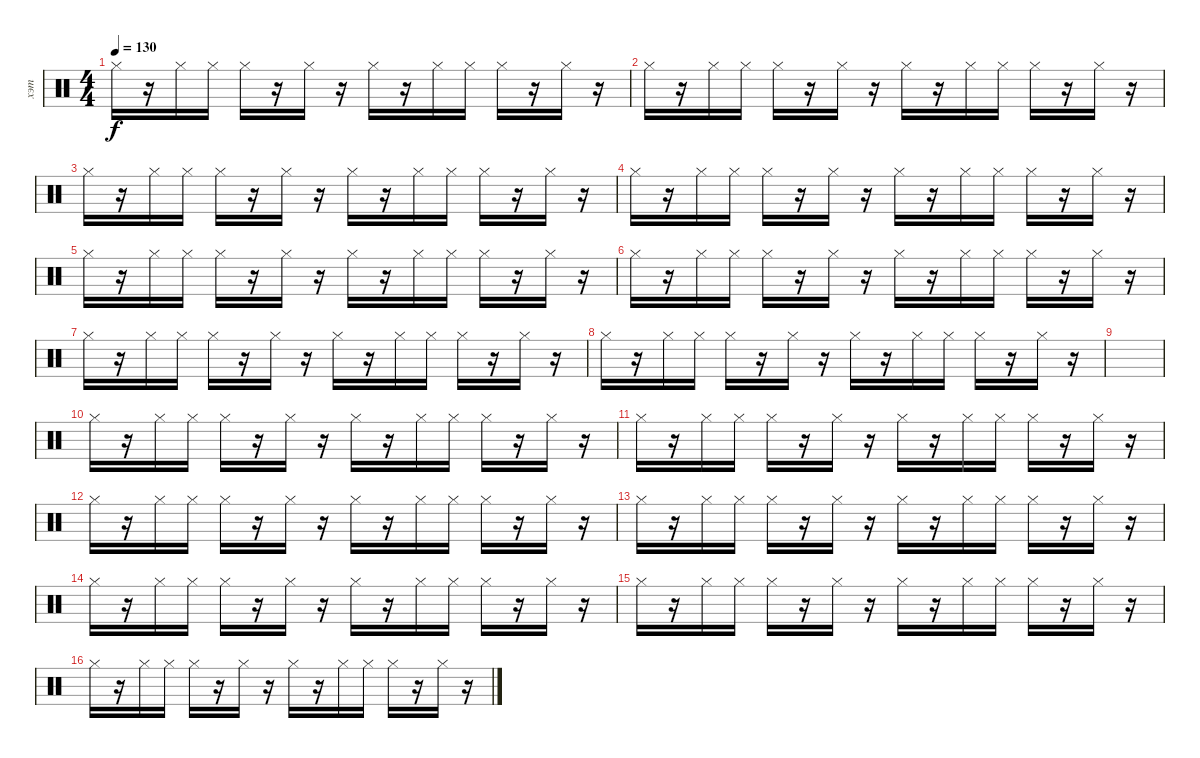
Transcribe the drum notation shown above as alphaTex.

\track ("хэт" "хэт") {instrument percussion}
\staff {score}
\articulation defaults
\ts (4 4)
\tempo 130
\clef neutral
\ks c "Hi-Hat (closed)".16{dy f}
r.16 "Hi-Hat (closed)".16 "Hi-Hat (closed)".16 "Hi-Hat (closed)".16 r.16 "Hi-Hat (closed)".16 r.16 "Hi-Hat (closed)".16 r.16 "Hi-Hat (closed)".16 "Hi-Hat (closed)".16 "Hi-Hat (closed)".16 r.16 "Hi-Hat (closed)".16 r.16 |
"Hi-Hat (closed)".16 r.16 "Hi-Hat (closed)".16 "Hi-Hat (closed)".16 "Hi-Hat (closed)".16 r.16 "Hi-Hat (closed)".16 r.16 "Hi-Hat (closed)".16 r.16 "Hi-Hat (closed)".16 "Hi-Hat (closed)".16 "Hi-Hat (closed)".16 r.16 "Hi-Hat (closed)".16 r.16 |
"Hi-Hat (closed)".16 r.16 "Hi-Hat (closed)".16 "Hi-Hat (closed)".16 "Hi-Hat (closed)".16 r.16 "Hi-Hat (closed)".16 r.16 "Hi-Hat (closed)".16 r.16 "Hi-Hat (closed)".16 "Hi-Hat (closed)".16 "Hi-Hat (closed)".16 r.16 "Hi-Hat (closed)".16 r.16 |
"Hi-Hat (closed)".16 r.16 "Hi-Hat (closed)".16 "Hi-Hat (closed)".16 "Hi-Hat (closed)".16 r.16 "Hi-Hat (closed)".16 r.16 "Hi-Hat (closed)".16 r.16 "Hi-Hat (closed)".16 "Hi-Hat (closed)".16 "Hi-Hat (closed)".16 r.16 "Hi-Hat (closed)".16 r.16 |
"Hi-Hat (closed)".16 r.16 "Hi-Hat (closed)".16 "Hi-Hat (closed)".16 "Hi-Hat (closed)".16 r.16 "Hi-Hat (closed)".16 r.16 "Hi-Hat (closed)".16 r.16 "Hi-Hat (closed)".16 "Hi-Hat (closed)".16 "Hi-Hat (closed)".16 r.16 "Hi-Hat (closed)".16 r.16 |
"Hi-Hat (closed)".16 r.16 "Hi-Hat (closed)".16 "Hi-Hat (closed)".16 "Hi-Hat (closed)".16 r.16 "Hi-Hat (closed)".16 r.16 "Hi-Hat (closed)".16 r.16 "Hi-Hat (closed)".16 "Hi-Hat (closed)".16 "Hi-Hat (closed)".16 r.16 "Hi-Hat (closed)".16 r.16 |
"Hi-Hat (closed)".16 r.16 "Hi-Hat (closed)".16 "Hi-Hat (closed)".16 "Hi-Hat (closed)".16 r.16 "Hi-Hat (closed)".16 r.16 "Hi-Hat (closed)".16 r.16 "Hi-Hat (closed)".16 "Hi-Hat (closed)".16 "Hi-Hat (closed)".16 r.16 "Hi-Hat (closed)".16 r.16 |
"Hi-Hat (closed)".16 r.16 "Hi-Hat (closed)".16 "Hi-Hat (closed)".16 "Hi-Hat (closed)".16 r.16 "Hi-Hat (closed)".16 r.16 "Hi-Hat (closed)".16 r.16 "Hi-Hat (closed)".16 "Hi-Hat (closed)".16 "Hi-Hat (closed)".16 r.16 "Hi-Hat (closed)".16 r.16 |
|
"Hi-Hat (closed)".16 r.16 "Hi-Hat (closed)".16 "Hi-Hat (closed)".16 "Hi-Hat (closed)".16 r.16 "Hi-Hat (closed)".16 r.16 "Hi-Hat (closed)".16 r.16 "Hi-Hat (closed)".16 "Hi-Hat (closed)".16 "Hi-Hat (closed)".16 r.16 "Hi-Hat (closed)".16 r.16 |
"Hi-Hat (closed)".16 r.16 "Hi-Hat (closed)".16 "Hi-Hat (closed)".16 "Hi-Hat (closed)".16 r.16 "Hi-Hat (closed)".16 r.16 "Hi-Hat (closed)".16 r.16 "Hi-Hat (closed)".16 "Hi-Hat (closed)".16 "Hi-Hat (closed)".16 r.16 "Hi-Hat (closed)".16 r.16 |
"Hi-Hat (closed)".16 r.16 "Hi-Hat (closed)".16 "Hi-Hat (closed)".16 "Hi-Hat (closed)".16 r.16 "Hi-Hat (closed)".16 r.16 "Hi-Hat (closed)".16 r.16 "Hi-Hat (closed)".16 "Hi-Hat (closed)".16 "Hi-Hat (closed)".16 r.16 "Hi-Hat (closed)".16 r.16 |
"Hi-Hat (closed)".16 r.16 "Hi-Hat (closed)".16 "Hi-Hat (closed)".16 "Hi-Hat (closed)".16 r.16 "Hi-Hat (closed)".16 r.16 "Hi-Hat (closed)".16 r.16 "Hi-Hat (closed)".16 "Hi-Hat (closed)".16 "Hi-Hat (closed)".16 r.16 "Hi-Hat (closed)".16 r.16 |
"Hi-Hat (closed)".16 r.16 "Hi-Hat (closed)".16 "Hi-Hat (closed)".16 "Hi-Hat (closed)".16 r.16 "Hi-Hat (closed)".16 r.16 "Hi-Hat (closed)".16 r.16 "Hi-Hat (closed)".16 "Hi-Hat (closed)".16 "Hi-Hat (closed)".16 r.16 "Hi-Hat (closed)".16 r.16 |
"Hi-Hat (closed)".16 r.16 "Hi-Hat (closed)".16 "Hi-Hat (closed)".16 "Hi-Hat (closed)".16 r.16 "Hi-Hat (closed)".16 r.16 "Hi-Hat (closed)".16 r.16 "Hi-Hat (closed)".16 "Hi-Hat (closed)".16 "Hi-Hat (closed)".16 r.16 "Hi-Hat (closed)".16 r.16 |
"Hi-Hat (closed)".16 r.16 "Hi-Hat (closed)".16 "Hi-Hat (closed)".16 "Hi-Hat (closed)".16 r.16 "Hi-Hat (closed)".16 r.16 "Hi-Hat (closed)".16 r.16 "Hi-Hat (closed)".16 "Hi-Hat (closed)".16 "Hi-Hat (closed)".16 r.16 "Hi-Hat (closed)".16 r.16
